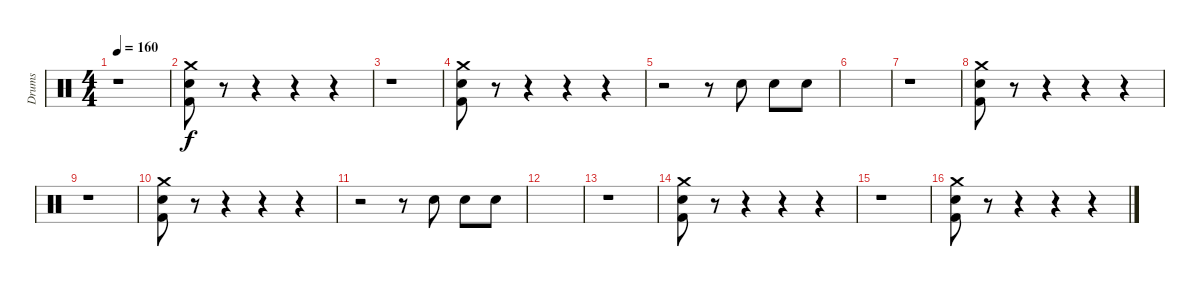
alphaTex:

\track ("Drums" "Drums") {instrument percussion}
\staff {score}
\articulation defaults
\ts (4 4)
\tempo 160
\clef neutral
\ks c
r.1{dy f} |
("Crash medium (hit)" "Electric Snare (hit)" "Kick (hit) 2").8 r.8 r.4 r.4 r.4 |
r.1 |
("Crash medium (hit)" "Electric Snare (hit)" "Kick (hit) 2").8 r.8 r.4 r.4 r.4 |
r.2 r.8 "Electric Snare (hit)".8 "Electric Snare (hit)".8 "Electric Snare (hit)".8 |
|
r.1 |
("Crash medium (hit)" "Electric Snare (hit)" "Kick (hit) 2").8 r.8 r.4 r.4 r.4 |
r.1 |
("Crash medium (hit)" "Electric Snare (hit)" "Kick (hit) 2").8 r.8 r.4 r.4 r.4 |
r.2 r.8 "Electric Snare (hit)".8 "Electric Snare (hit)".8 "Electric Snare (hit)".8 |
|
r.1 |
("Crash medium (hit)" "Electric Snare (hit)" "Kick (hit) 2").8 r.8 r.4 r.4 r.4 |
r.1 |
("Crash medium (hit)" "Electric Snare (hit)" "Kick (hit) 2").8 r.8 r.4 r.4 r.4
